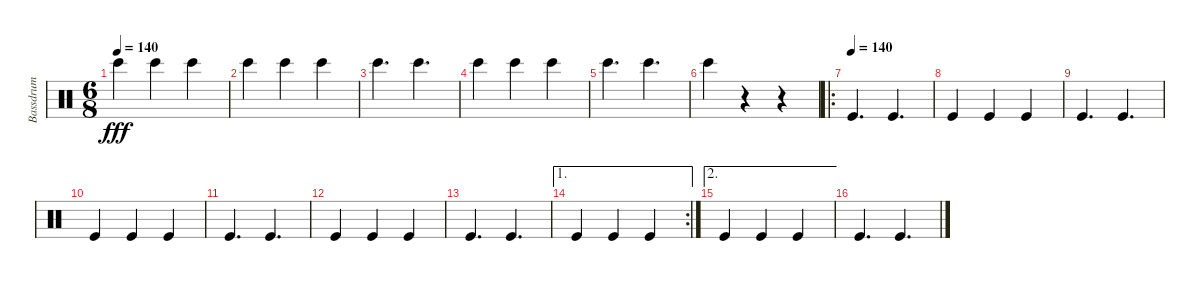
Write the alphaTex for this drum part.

\track ("Bassdrum" "Bassdrum") {instrument percussion}
\staff {score}
\articulation defaults
\ts (6 8)
\tempo 140
\clef neutral
\ks c "Bongo High (hit)".4{dy fff} "Bongo High (hit)".4 "Bongo High (hit)".4
|
"Bongo High (hit)".4 "Bongo High (hit)".4 "Bongo High (hit)".4 |
"Bongo High (hit)".4{d} "Bongo High (hit)".4{d} |
"Bongo High (hit)".4 "Bongo High (hit)".4 "Bongo High (hit)".4 |
"Bongo High (hit)".4{d} "Bongo High (hit)".4{d} |
"Bongo High (hit)".4 r.4 r.4 |
\ro
\tempo (140)
"Kick (hit)".4{d} "Kick (hit)".4{d} |
"Kick (hit)".4 "Kick (hit)".4 "Kick (hit)".4 |
"Kick (hit)".4{d} "Kick (hit)".4{d} |
"Kick (hit)".4 "Kick (hit)".4 "Kick (hit)".4 |
"Kick (hit)".4{d} "Kick (hit)".4{d} |
"Kick (hit)".4 "Kick (hit)".4 "Kick (hit)".4 |
"Kick (hit)".4{d} "Kick (hit)".4{d} |
\ae 1
\rc 2 "Kick (hit)".4 "Kick (hit)".4 "Kick (hit)".4
|
\ae 2 "Kick (hit)".4 "Kick (hit)".4 "Kick (hit)".4
|
"Kick (hit)".4{d} "Kick (hit)".4{d}
